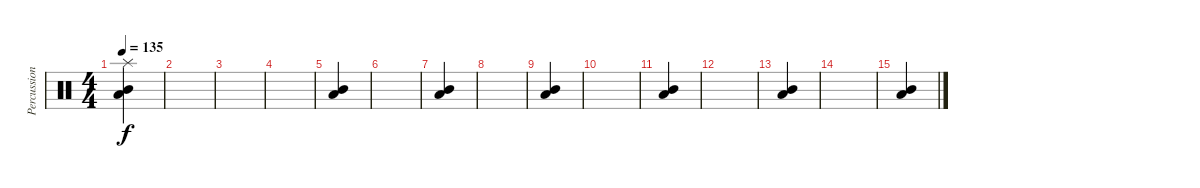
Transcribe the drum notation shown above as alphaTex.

\track ("Percussion" "Percussion") {instrument percussion}
\staff {score}
\articulation defaults
\ts (4 4)
\tempo 135
\clef neutral
\ks c
("Mid Tom (hit)" "Low Tom (hit)" "Splash (hit)").4{dy f} |
|
|
|
("Mid Tom (hit)" "Low Tom (hit)").4 |
|
("Mid Tom (hit)" "Low Tom (hit)").4 |
|
("Mid Tom (hit)" "Low Tom (hit)").4 |
|
("Mid Tom (hit)" "Low Tom (hit)").4 |
|
("Mid Tom (hit)" "Low Tom (hit)").4 |
|
("Mid Tom (hit)" "Low Tom (hit)").4
